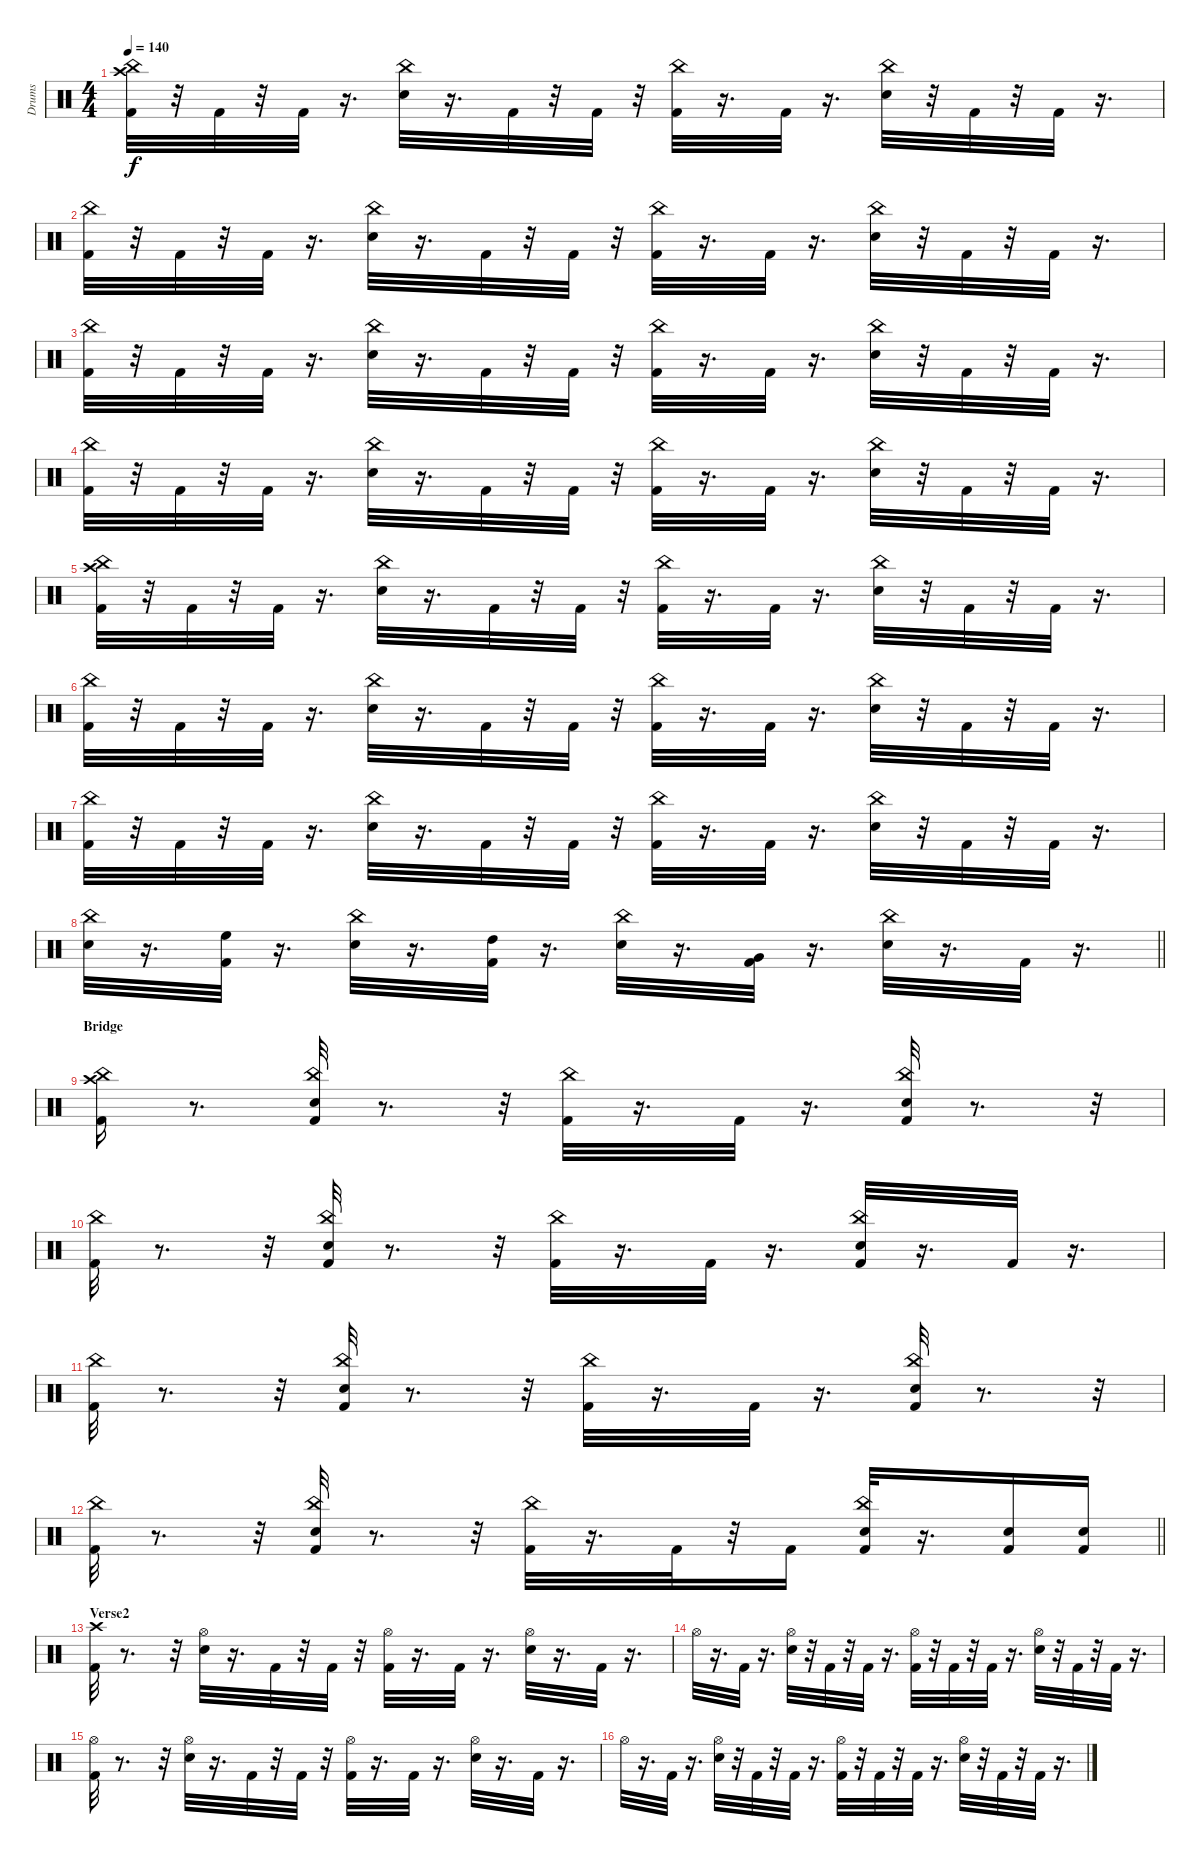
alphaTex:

\track ("Drums" "Drums") {instrument percussion}
\staff {score}
\articulation defaults
\ts (4 4)
\tempo 140
\clef neutral
\ks c
("Kick (hit) 2" "Crash high (hit)" "China (hit)").32{dy f} r.32 "Kick (hit) 2".32 r.32 "Kick (hit) 2".32 r.16{d} ("Snare (hit) 2" "China (hit)").32 r.16{d} "Kick (hit) 2".32 r.32 "Kick (hit) 2".32 r.32 ("Kick (hit) 2" "China (hit)").32 r.16{d} "Kick (hit) 2".32 r.16{d} ("Snare (hit) 2" "China (hit)").32 r.32 "Kick (hit) 2".32 r.32 "Kick (hit) 2".32 r.16{d} |
("Kick (hit) 2" "China (hit)").32 r.32 "Kick (hit) 2".32 r.32 "Kick (hit) 2".32 r.16{d} ("Snare (hit) 2" "China (hit)").32 r.16{d} "Kick (hit) 2".32 r.32 "Kick (hit) 2".32 r.32 ("Kick (hit) 2" "China (hit)").32 r.16{d} "Kick (hit) 2".32 r.16{d} ("Snare (hit) 2" "China (hit)").32 r.32 "Kick (hit) 2".32 r.32 "Kick (hit) 2".32 r.16{d} |
("Kick (hit) 2" "China (hit)").32 r.32 "Kick (hit) 2".32 r.32 "Kick (hit) 2".32 r.16{d} ("Snare (hit) 2" "China (hit)").32 r.16{d} "Kick (hit) 2".32 r.32 "Kick (hit) 2".32 r.32 ("Kick (hit) 2" "China (hit)").32 r.16{d} "Kick (hit) 2".32 r.16{d} ("Snare (hit) 2" "China (hit)").32 r.32 "Kick (hit) 2".32 r.32 "Kick (hit) 2".32 r.16{d} |
("Kick (hit) 2" "China (hit)").32 r.32 "Kick (hit) 2".32 r.32 "Kick (hit) 2".32 r.16{d} ("Snare (hit) 2" "China (hit)").32 r.16{d} "Kick (hit) 2".32 r.32 "Kick (hit) 2".32 r.32 ("Kick (hit) 2" "China (hit)").32 r.16{d} "Kick (hit) 2".32 r.16{d} ("Snare (hit) 2" "China (hit)").32 r.32 "Kick (hit) 2".32 r.32 "Kick (hit) 2".32 r.16{d} |
("Kick (hit) 2" "Crash high (hit)" "China (hit)").32 r.32 "Kick (hit) 2".32 r.32 "Kick (hit) 2".32 r.16{d} ("Snare (hit) 2" "China (hit)").32 r.16{d} "Kick (hit) 2".32 r.32 "Kick (hit) 2".32 r.32 ("Kick (hit) 2" "China (hit)").32 r.16{d} "Kick (hit) 2".32 r.16{d} ("Snare (hit) 2" "China (hit)").32 r.32 "Kick (hit) 2".32 r.32 "Kick (hit) 2".32 r.16{d} |
("Kick (hit) 2" "China (hit)").32 r.32 "Kick (hit) 2".32 r.32 "Kick (hit) 2".32 r.16{d} ("Snare (hit) 2" "China (hit)").32 r.16{d} "Kick (hit) 2".32 r.32 "Kick (hit) 2".32 r.32 ("Kick (hit) 2" "China (hit)").32 r.16{d} "Kick (hit) 2".32 r.16{d} ("Snare (hit) 2" "China (hit)").32 r.32 "Kick (hit) 2".32 r.32 "Kick (hit) 2".32 r.16{d} |
("Kick (hit) 2" "China (hit)").32 r.32 "Kick (hit) 2".32 r.32 "Kick (hit) 2".32 r.16{d} ("Snare (hit) 2" "China (hit)").32 r.16{d} "Kick (hit) 2".32 r.32 "Kick (hit) 2".32 r.32 ("Kick (hit) 2" "China (hit)").32 r.16{d} "Kick (hit) 2".32 r.16{d} ("Snare (hit) 2" "China (hit)").32 r.32 "Kick (hit) 2".32 r.32 "Kick (hit) 2".32 r.16{d} |
\barLineRight lightlight
("Snare (hit) 2" "China (hit)").32 r.16{d} ("Kick (hit) 2" "High Floor Tom (hit)").32 r.16{d} ("Snare (hit) 2" "China (hit)").32 r.16{d} ("Kick (hit) 2" "High Tom (hit)").32 r.16{d} ("Snare (hit) 2" "China (hit)").32 r.16{d} ("Kick (hit) 2" "Very Low Tom (hit)").32 r.16{d} ("Snare (hit) 2" "China (hit)").32 r.16{d} "Kick (hit) 2".32 r.16{d} |
\section ("" "Bridge")
("Kick (hit) 2" "Crash high (hit)" "China (hit)").16 r.8{d} ("Kick (hit) 2" "Snare (hit) 2" "China (hit)").32 r.8{d} r.32 ("Kick (hit) 2" "China (hit)").32 r.16{d} "Kick (hit) 2".32 r.16{d} ("Kick (hit) 2" "Snare (hit) 2" "China (hit)").32 r.8{d} r.32 |
("Kick (hit) 2" "China (hit)").32 r.8{d} r.32 ("Kick (hit) 2" "Snare (hit) 2" "China (hit)").32 r.8{d} r.32 ("Kick (hit) 2" "China (hit)").32 r.16{d} "Kick (hit) 2".32 r.16{d} ("Kick (hit) 2" "Snare (hit) 2" "China (hit)").32 r.16{d} "Kick (hit) 2".32 r.16{d} |
("Kick (hit) 2" "China (hit)").32 r.8{d} r.32 ("Kick (hit) 2" "Snare (hit) 2" "China (hit)").32 r.8{d} r.32 ("Kick (hit) 2" "China (hit)").32 r.16{d} "Kick (hit) 2".32 r.16{d} ("Kick (hit) 2" "Snare (hit) 2" "China (hit)").32 r.8{d} r.32 |
\barLineRight lightlight
("Kick (hit) 2" "China (hit)").32 r.8{d} r.32 ("Kick (hit) 2" "Snare (hit) 2" "China (hit)").32 r.8{d} r.32 ("Kick (hit) 2" "China (hit)").32 r.16{d} "Kick (hit) 2".32 r.32 "Kick (hit) 2".16 ("Kick (hit) 2" "Snare (hit) 2" "China (hit)").32 r.16{d} ("Kick (hit) 2" "Snare (hit) 2").16 ("Kick (hit) 2" "Snare (hit) 2").16 |
\section ("" "Verse2")
("Kick (hit) 2" "Crash high (hit)").32 r.8{d} r.32 ("Snare (hit) 2" "Hi-Hat (open)").32 r.16{d} "Kick (hit) 2".32 r.32 "Kick (hit) 2".32 r.32 ("Kick (hit) 2" "Hi-Hat (open)").32 r.16{d} "Kick (hit) 2".32 r.16{d} ("Snare (hit) 2" "Hi-Hat (open)").32 r.16{d} "Kick (hit) 2".32 r.16{d} |
"Hi-Hat (open)".32 r.16{d} "Kick (hit) 2".32 r.16{d} ("Snare (hit) 2" "Hi-Hat (open)").32 r.32 "Kick (hit) 2".32 r.32 "Kick (hit) 2".32 r.16{d} ("Kick (hit) 2" "Hi-Hat (open)").32 r.32 "Kick (hit) 2".32 r.32 "Kick (hit) 2".32 r.16{d} ("Snare (hit) 2" "Hi-Hat (open)").32 r.32 "Kick (hit) 2".32 r.32 "Kick (hit) 2".32 r.16{d} |
("Kick (hit) 2" "Hi-Hat (open)").32 r.8{d} r.32 ("Snare (hit) 2" "Hi-Hat (open)").32 r.16{d} "Kick (hit) 2".32 r.32 "Kick (hit) 2".32 r.32 ("Kick (hit) 2" "Hi-Hat (open)").32 r.16{d} "Kick (hit) 2".32 r.16{d} ("Snare (hit) 2" "Hi-Hat (open)").32 r.16{d} "Kick (hit) 2".32 r.16{d} |
"Hi-Hat (open)".32 r.16{d} "Kick (hit) 2".32 r.16{d} ("Snare (hit) 2" "Hi-Hat (open)").32 r.32 "Kick (hit) 2".32 r.32 "Kick (hit) 2".32 r.16{d} ("Kick (hit) 2" "Hi-Hat (open)").32 r.32 "Kick (hit) 2".32 r.32 "Kick (hit) 2".32 r.16{d} ("Snare (hit) 2" "Hi-Hat (open)").32 r.32 "Kick (hit) 2".32 r.32 "Kick (hit) 2".32 r.16{d}
